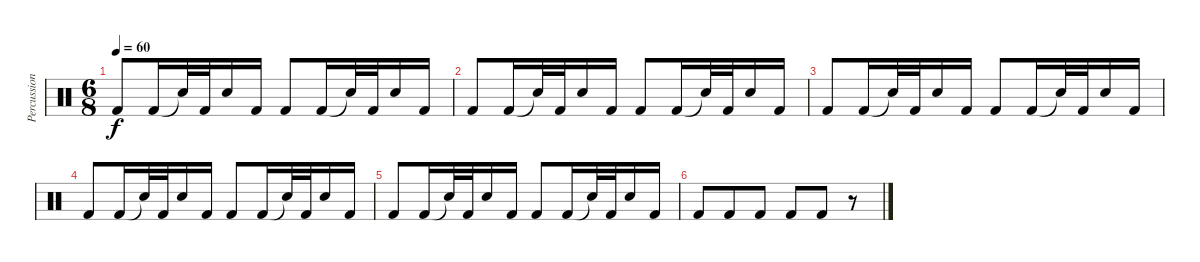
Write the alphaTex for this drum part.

\track ("Percussion" "Percussion") {instrument percussion}
\staff {score}
\articulation defaults
\ts (6 8)
\tempo 60
\clef neutral
\ks c "Kick (hit) 2".8{dy f} "Kick (hit) 2".16 "Snare (hit)"{t}.32 "Kick (hit) 2".32 "Snare (hit) 2".16 "Kick (hit) 2".16 "Kick (hit) 2".8 "Kick (hit) 2".16 "Snare (hit)"{t}.32 "Kick (hit) 2".32 "Snare (hit) 2".16 "Kick (hit) 2".16
|
"Kick (hit) 2".8 "Kick (hit) 2".16 "Snare (hit)"{t}.32 "Kick (hit) 2".32 "Snare (hit) 2".16 "Kick (hit) 2".16 "Kick (hit) 2".8 "Kick (hit) 2".16 "Snare (hit)"{t}.32 "Kick (hit) 2".32 "Snare (hit) 2".16 "Kick (hit) 2".16 |
"Kick (hit) 2".8 "Kick (hit) 2".16 "Snare (hit)"{t}.32 "Kick (hit) 2".32 "Snare (hit) 2".16 "Kick (hit) 2".16 "Kick (hit) 2".8 "Kick (hit) 2".16 "Snare (hit)"{t}.32 "Kick (hit) 2".32 "Snare (hit) 2".16 "Kick (hit) 2".16 |
"Kick (hit) 2".8 "Kick (hit) 2".16 "Snare (hit)"{t}.32 "Kick (hit) 2".32 "Snare (hit) 2".16 "Kick (hit) 2".16 "Kick (hit) 2".8 "Kick (hit) 2".16 "Snare (hit)"{t}.32 "Kick (hit) 2".32 "Snare (hit) 2".16 "Kick (hit) 2".16 |
"Kick (hit) 2".8 "Kick (hit) 2".16 "Snare (hit)"{t}.32 "Kick (hit) 2".32 "Snare (hit) 2".16 "Kick (hit) 2".16 "Kick (hit) 2".8 "Kick (hit) 2".16 "Snare (hit)"{t}.32 "Kick (hit) 2".32 "Snare (hit) 2".16 "Kick (hit) 2".16 |
"Kick (hit) 2".8 "Kick (hit) 2".8 "Kick (hit) 2".8 "Kick (hit) 2".8 "Kick (hit) 2".8 r.8
